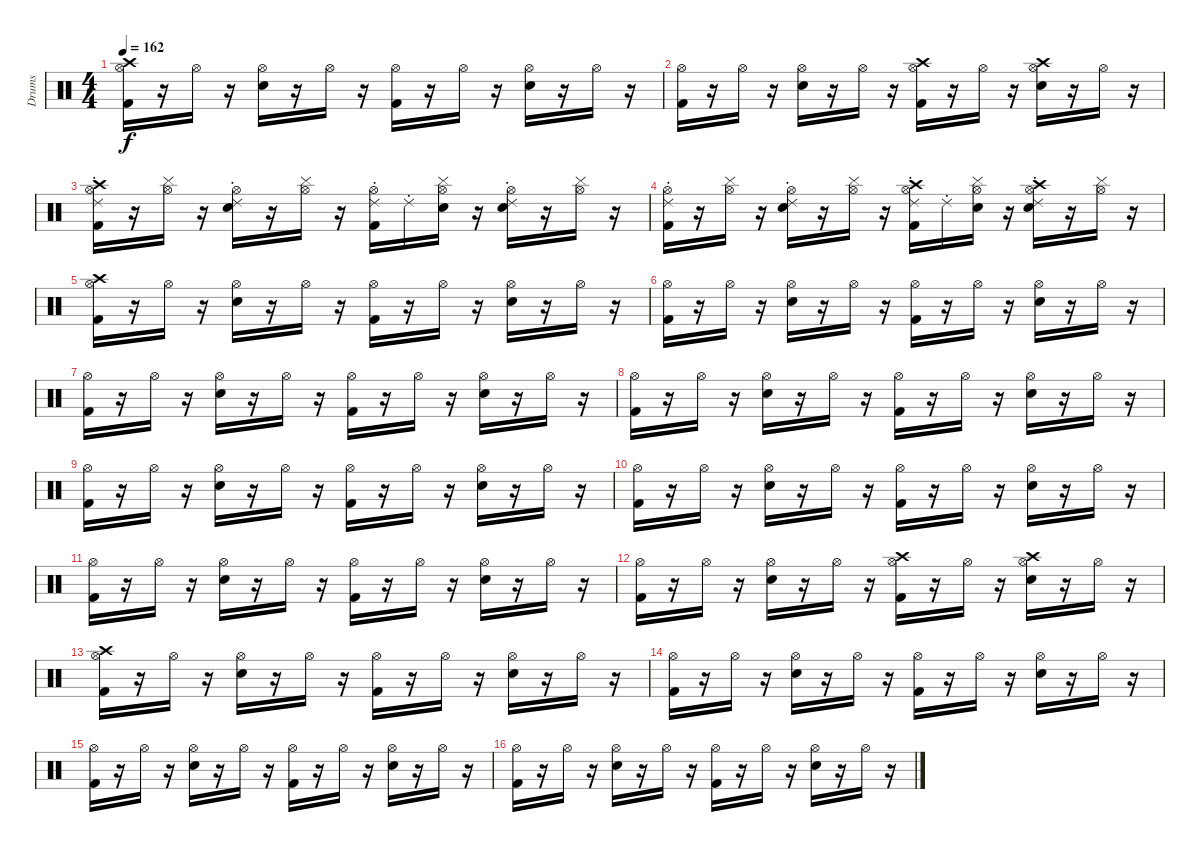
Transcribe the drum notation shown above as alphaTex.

\track ("Drums" "Drums") {instrument percussion}
\staff {score}
\articulation defaults
\ts (4 4)
\tempo 162
\clef neutral
\ks c
("Kick (hit) 2" "Hi-Hat (open)" "Crash high (hit)").16{dy f} r.16 "Hi-Hat (open)".16 r.16 ("Electric Snare (hit)" "Hi-Hat (open)").16 r.16 "Hi-Hat (open)".16 r.16 ("Hi-Hat (open)" "Kick (hit) 2").16 r.16 "Hi-Hat (open)".16 r.16 ("Hi-Hat (open)" "Electric Snare (hit)").16 r.16 "Hi-Hat (open)".16 r.16 |
("Kick (hit) 2" "Hi-Hat (open)").16 r.16 "Hi-Hat (open)".16 r.16 ("Electric Snare (hit)" "Hi-Hat (open)").16 r.16 "Hi-Hat (open)".16 r.16 ("Hi-Hat (open)" "Kick (hit) 2" "Crash high (hit)").16 r.16 "Hi-Hat (open)".16 r.16 ("Hi-Hat (open)" "Electric Snare (hit)" "Crash high (hit)").16 r.16 "Hi-Hat (open)".16 r.16 |
("Kick (hit) 2" "Hi-Hat (open)" "Ride (choke) 2" "Crash high (hit)").16 r.16 ("Hi-Hat (open)" "Cymbal (hit)").16 r.16 ("Electric Snare (hit)" "Hi-Hat (open)" "Ride (choke) 2").16 r.16 ("Hi-Hat (open)" "Cymbal (hit)").16 r.16 ("Hi-Hat (open)" "Kick (hit) 2" "Ride (choke) 2").16 "Ride (choke) 2".16 ("Snare (hit)" "Hi-Hat (open)" "Cymbal (hit)").16 r.16 ("Hi-Hat (open)" "Electric Snare (hit)" "Ride (choke) 2").16 r.16 ("Hi-Hat (open)" "Cymbal (hit)").16 r.16 |
("Kick (hit) 2" "Hi-Hat (open)" "Ride (choke) 2").16 r.16 ("Hi-Hat (open)" "Cymbal (hit)").16 r.16 ("Electric Snare (hit)" "Hi-Hat (open)" "Ride (choke) 2").16 r.16 ("Hi-Hat (open)" "Cymbal (hit)").16 r.16 ("Hi-Hat (open)" "Kick (hit) 2" "Ride (choke) 2" "Crash high (hit)").16 "Ride (choke) 2".16 ("Snare (hit)" "Hi-Hat (open)" "Cymbal (hit)").16 r.16 ("Hi-Hat (open)" "Electric Snare (hit)" "Ride (choke) 2" "Crash high (hit)").16 r.16 ("Hi-Hat (open)" "Cymbal (hit)").16 r.16 |
("Kick (hit) 2" "Hi-Hat (open)" "Crash high (hit)").16 r.16 "Hi-Hat (open)".16 r.16 ("Electric Snare (hit)" "Hi-Hat (open)").16 r.16 "Hi-Hat (open)".16 r.16 ("Hi-Hat (open)" "Kick (hit) 2").16 r.16 "Hi-Hat (open)".16 r.16 ("Hi-Hat (open)" "Electric Snare (hit)").16 r.16 "Hi-Hat (open)".16 r.16 |
("Kick (hit) 2" "Hi-Hat (open)").16 r.16 "Hi-Hat (open)".16 r.16 ("Electric Snare (hit)" "Hi-Hat (open)").16 r.16 "Hi-Hat (open)".16 r.16 ("Hi-Hat (open)" "Kick (hit) 2").16 r.16 "Hi-Hat (open)".16 r.16 ("Hi-Hat (open)" "Electric Snare (hit)").16 r.16 "Hi-Hat (open)".16 r.16 |
("Kick (hit) 2" "Hi-Hat (open)").16 r.16 "Hi-Hat (open)".16 r.16 ("Electric Snare (hit)" "Hi-Hat (open)").16 r.16 "Hi-Hat (open)".16 r.16 ("Hi-Hat (open)" "Kick (hit) 2").16 r.16 "Hi-Hat (open)".16 r.16 ("Hi-Hat (open)" "Electric Snare (hit)").16 r.16 "Hi-Hat (open)".16 r.16 |
("Kick (hit) 2" "Hi-Hat (open)").16 r.16 "Hi-Hat (open)".16 r.16 ("Electric Snare (hit)" "Hi-Hat (open)").16 r.16 "Hi-Hat (open)".16 r.16 ("Hi-Hat (open)" "Kick (hit) 2").16 r.16 "Hi-Hat (open)".16 r.16 ("Hi-Hat (open)" "Electric Snare (hit)").16 r.16 "Hi-Hat (open)".16 r.16 |
("Kick (hit) 2" "Hi-Hat (open)").16 r.16 "Hi-Hat (open)".16 r.16 ("Electric Snare (hit)" "Hi-Hat (open)").16 r.16 "Hi-Hat (open)".16 r.16 ("Hi-Hat (open)" "Kick (hit) 2").16 r.16 "Hi-Hat (open)".16 r.16 ("Hi-Hat (open)" "Electric Snare (hit)").16 r.16 "Hi-Hat (open)".16 r.16 |
("Kick (hit) 2" "Hi-Hat (open)").16 r.16 "Hi-Hat (open)".16 r.16 ("Electric Snare (hit)" "Hi-Hat (open)").16 r.16 "Hi-Hat (open)".16 r.16 ("Hi-Hat (open)" "Kick (hit) 2").16 r.16 "Hi-Hat (open)".16 r.16 ("Hi-Hat (open)" "Electric Snare (hit)").16 r.16 "Hi-Hat (open)".16 r.16 |
("Kick (hit) 2" "Hi-Hat (open)").16 r.16 "Hi-Hat (open)".16 r.16 ("Electric Snare (hit)" "Hi-Hat (open)").16 r.16 "Hi-Hat (open)".16 r.16 ("Hi-Hat (open)" "Kick (hit) 2").16 r.16 "Hi-Hat (open)".16 r.16 ("Hi-Hat (open)" "Electric Snare (hit)").16 r.16 "Hi-Hat (open)".16 r.16 |
("Kick (hit) 2" "Hi-Hat (open)").16 r.16 "Hi-Hat (open)".16 r.16 ("Electric Snare (hit)" "Hi-Hat (open)").16 r.16 "Hi-Hat (open)".16 r.16 ("Hi-Hat (open)" "Kick (hit) 2" "Crash high (hit)").16 r.16 "Hi-Hat (open)".16 r.16 ("Hi-Hat (open)" "Electric Snare (hit)" "Crash high (hit)").16 r.16 "Hi-Hat (open)".16 r.16 |
("Kick (hit) 2" "Hi-Hat (open)" "Crash high (hit)").16 r.16 "Hi-Hat (open)".16 r.16 ("Electric Snare (hit)" "Hi-Hat (open)").16 r.16 "Hi-Hat (open)".16 r.16 ("Hi-Hat (open)" "Kick (hit) 2").16 r.16 "Hi-Hat (open)".16 r.16 ("Hi-Hat (open)" "Electric Snare (hit)").16 r.16 "Hi-Hat (open)".16 r.16 |
("Kick (hit) 2" "Hi-Hat (open)").16 r.16 "Hi-Hat (open)".16 r.16 ("Electric Snare (hit)" "Hi-Hat (open)").16 r.16 "Hi-Hat (open)".16 r.16 ("Hi-Hat (open)" "Kick (hit) 2").16 r.16 "Hi-Hat (open)".16 r.16 ("Hi-Hat (open)" "Electric Snare (hit)").16 r.16 "Hi-Hat (open)".16 r.16 |
("Kick (hit) 2" "Hi-Hat (open)").16 r.16 "Hi-Hat (open)".16 r.16 ("Electric Snare (hit)" "Hi-Hat (open)").16 r.16 "Hi-Hat (open)".16 r.16 ("Hi-Hat (open)" "Kick (hit) 2").16 r.16 "Hi-Hat (open)".16 r.16 ("Hi-Hat (open)" "Electric Snare (hit)").16 r.16 "Hi-Hat (open)".16 r.16 |
("Kick (hit) 2" "Hi-Hat (open)").16 r.16 "Hi-Hat (open)".16 r.16 ("Electric Snare (hit)" "Hi-Hat (open)").16 r.16 "Hi-Hat (open)".16 r.16 ("Hi-Hat (open)" "Kick (hit) 2").16 r.16 "Hi-Hat (open)".16 r.16 ("Hi-Hat (open)" "Electric Snare (hit)").16 r.16 "Hi-Hat (open)".16 r.16
